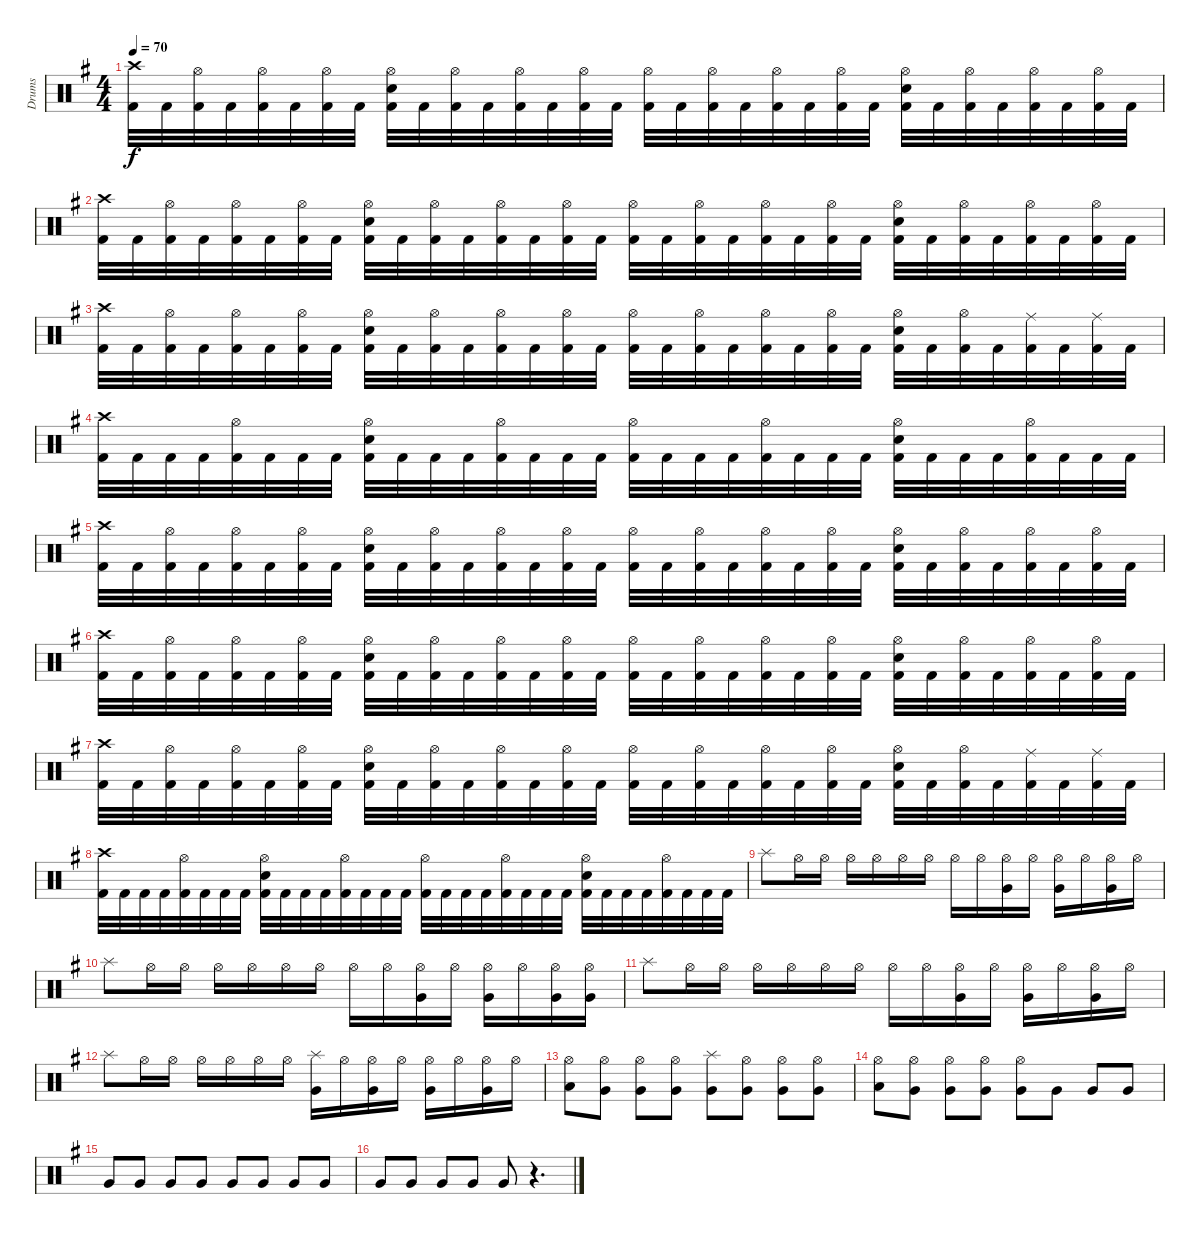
\track ("Drums" "Drums") {instrument percussion}
\staff {score}
\articulation defaults
\ts (4 4)
\tempo 70
\clef neutral
\ks g
("Crash high (hit)" "Kick (hit) 2").32{dy f} "Kick (hit) 2".32 ("Hi-Hat (open)" "Kick (hit) 2").32 "Kick (hit) 2".32 ("Hi-Hat (open)" "Kick (hit) 2").32 "Kick (hit) 2".32 ("Hi-Hat (open)" "Kick (hit) 2").32 "Kick (hit) 2".32 ("Hi-Hat (open)" "Electric Snare (hit)" "Kick (hit) 2").32 "Kick (hit) 2".32 ("Hi-Hat (open)" "Kick (hit) 2").32 "Kick (hit) 2".32 ("Hi-Hat (open)" "Kick (hit) 2").32 "Kick (hit) 2".32 ("Hi-Hat (open)" "Kick (hit) 2").32 "Kick (hit) 2".32 ("Hi-Hat (open)" "Kick (hit) 2").32 "Kick (hit) 2".32 ("Hi-Hat (open)" "Kick (hit) 2").32 "Kick (hit) 2".32 ("Hi-Hat (open)" "Kick (hit) 2").32 "Kick (hit) 2".32 ("Hi-Hat (open)" "Kick (hit) 2").32 "Kick (hit) 2".32 ("Hi-Hat (open)" "Electric Snare (hit)" "Kick (hit) 2").32 "Kick (hit) 2".32 ("Hi-Hat (open)" "Kick (hit) 2").32 "Kick (hit) 2".32 ("Hi-Hat (open)" "Kick (hit) 2").32 "Kick (hit) 2".32 ("Hi-Hat (open)" "Kick (hit) 2").32 "Kick (hit) 2".32 |
("Crash high (hit)" "Kick (hit) 2").32 "Kick (hit) 2".32 ("Hi-Hat (open)" "Kick (hit) 2").32 "Kick (hit) 2".32 ("Hi-Hat (open)" "Kick (hit) 2").32 "Kick (hit) 2".32 ("Hi-Hat (open)" "Kick (hit) 2").32 "Kick (hit) 2".32 ("Hi-Hat (open)" "Electric Snare (hit)" "Kick (hit) 2").32 "Kick (hit) 2".32 ("Hi-Hat (open)" "Kick (hit) 2").32 "Kick (hit) 2".32 ("Hi-Hat (open)" "Kick (hit) 2").32 "Kick (hit) 2".32 ("Hi-Hat (open)" "Kick (hit) 2").32 "Kick (hit) 2".32 ("Hi-Hat (open)" "Kick (hit) 2").32 "Kick (hit) 2".32 ("Hi-Hat (open)" "Kick (hit) 2").32 "Kick (hit) 2".32 ("Hi-Hat (open)" "Kick (hit) 2").32 "Kick (hit) 2".32 ("Hi-Hat (open)" "Kick (hit) 2").32 "Kick (hit) 2".32 ("Hi-Hat (open)" "Electric Snare (hit)" "Kick (hit) 2").32 "Kick (hit) 2".32 ("Hi-Hat (open)" "Kick (hit) 2").32 "Kick (hit) 2".32 ("Hi-Hat (open)" "Kick (hit) 2").32 "Kick (hit) 2".32 ("Hi-Hat (open)" "Kick (hit) 2").32 "Kick (hit) 2".32 |
("Crash high (hit)" "Kick (hit) 2").32 "Kick (hit) 2".32 ("Hi-Hat (open)" "Kick (hit) 2").32 "Kick (hit) 2".32 ("Hi-Hat (open)" "Kick (hit) 2").32 "Kick (hit) 2".32 ("Hi-Hat (open)" "Kick (hit) 2").32 "Kick (hit) 2".32 ("Hi-Hat (open)" "Electric Snare (hit)" "Kick (hit) 2").32 "Kick (hit) 2".32 ("Hi-Hat (open)" "Kick (hit) 2").32 "Kick (hit) 2".32 ("Hi-Hat (open)" "Kick (hit) 2").32 "Kick (hit) 2".32 ("Hi-Hat (open)" "Kick (hit) 2").32 "Kick (hit) 2".32 ("Hi-Hat (open)" "Kick (hit) 2").32 "Kick (hit) 2".32 ("Hi-Hat (open)" "Kick (hit) 2").32 "Kick (hit) 2".32 ("Hi-Hat (open)" "Kick (hit) 2").32 "Kick (hit) 2".32 ("Hi-Hat (open)" "Kick (hit) 2").32 "Kick (hit) 2".32 ("Hi-Hat (open)" "Electric Snare (hit)" "Kick (hit) 2").32 "Kick (hit) 2".32 ("Hi-Hat (open)" "Kick (hit) 2").32 "Kick (hit) 2".32 ("Ride (middle)" "Kick (hit) 2").32 "Kick (hit) 2".32 ("Ride (middle)" "Kick (hit) 2").32 "Kick (hit) 2".32 |
("Crash high (hit)" "Kick (hit) 2").32 "Kick (hit) 2".32 "Kick (hit) 2".32 "Kick (hit) 2".32 ("Hi-Hat (open)" "Kick (hit) 2").32 "Kick (hit) 2".32 "Kick (hit) 2".32 "Kick (hit) 2".32 ("Hi-Hat (open)" "Electric Snare (hit)" "Kick (hit) 2").32 "Kick (hit) 2".32 "Kick (hit) 2".32 "Kick (hit) 2".32 ("Hi-Hat (open)" "Kick (hit) 2").32 "Kick (hit) 2".32 "Kick (hit) 2".32 "Kick (hit) 2".32 ("Hi-Hat (open)" "Kick (hit) 2").32 "Kick (hit) 2".32 "Kick (hit) 2".32 "Kick (hit) 2".32 ("Hi-Hat (open)" "Kick (hit) 2").32 "Kick (hit) 2".32 "Kick (hit) 2".32 "Kick (hit) 2".32 ("Hi-Hat (open)" "Electric Snare (hit)" "Kick (hit) 2").32 "Kick (hit) 2".32 "Kick (hit) 2".32 "Kick (hit) 2".32 ("Hi-Hat (open)" "Kick (hit) 2").32 "Kick (hit) 2".32 "Kick (hit) 2".32 "Kick (hit) 2".32 |
("Crash high (hit)" "Kick (hit) 2").32 "Kick (hit) 2".32 ("Hi-Hat (open)" "Kick (hit) 2").32 "Kick (hit) 2".32 ("Hi-Hat (open)" "Kick (hit) 2").32 "Kick (hit) 2".32 ("Hi-Hat (open)" "Kick (hit) 2").32 "Kick (hit) 2".32 ("Hi-Hat (open)" "Electric Snare (hit)" "Kick (hit) 2").32 "Kick (hit) 2".32 ("Hi-Hat (open)" "Kick (hit) 2").32 "Kick (hit) 2".32 ("Hi-Hat (open)" "Kick (hit) 2").32 "Kick (hit) 2".32 ("Hi-Hat (open)" "Kick (hit) 2").32 "Kick (hit) 2".32 ("Hi-Hat (open)" "Kick (hit) 2").32 "Kick (hit) 2".32 ("Hi-Hat (open)" "Kick (hit) 2").32 "Kick (hit) 2".32 ("Hi-Hat (open)" "Kick (hit) 2").32 "Kick (hit) 2".32 ("Hi-Hat (open)" "Kick (hit) 2").32 "Kick (hit) 2".32 ("Hi-Hat (open)" "Electric Snare (hit)" "Kick (hit) 2").32 "Kick (hit) 2".32 ("Hi-Hat (open)" "Kick (hit) 2").32 "Kick (hit) 2".32 ("Hi-Hat (open)" "Kick (hit) 2").32 "Kick (hit) 2".32 ("Hi-Hat (open)" "Kick (hit) 2").32 "Kick (hit) 2".32 |
("Crash high (hit)" "Kick (hit) 2").32 "Kick (hit) 2".32 ("Hi-Hat (open)" "Kick (hit) 2").32 "Kick (hit) 2".32 ("Hi-Hat (open)" "Kick (hit) 2").32 "Kick (hit) 2".32 ("Hi-Hat (open)" "Kick (hit) 2").32 "Kick (hit) 2".32 ("Hi-Hat (open)" "Electric Snare (hit)" "Kick (hit) 2").32 "Kick (hit) 2".32 ("Hi-Hat (open)" "Kick (hit) 2").32 "Kick (hit) 2".32 ("Hi-Hat (open)" "Kick (hit) 2").32 "Kick (hit) 2".32 ("Hi-Hat (open)" "Kick (hit) 2").32 "Kick (hit) 2".32 ("Hi-Hat (open)" "Kick (hit) 2").32 "Kick (hit) 2".32 ("Hi-Hat (open)" "Kick (hit) 2").32 "Kick (hit) 2".32 ("Hi-Hat (open)" "Kick (hit) 2").32 "Kick (hit) 2".32 ("Hi-Hat (open)" "Kick (hit) 2").32 "Kick (hit) 2".32 ("Hi-Hat (open)" "Electric Snare (hit)" "Kick (hit) 2").32 "Kick (hit) 2".32 ("Hi-Hat (open)" "Kick (hit) 2").32 "Kick (hit) 2".32 ("Hi-Hat (open)" "Kick (hit) 2").32 "Kick (hit) 2".32 ("Hi-Hat (open)" "Kick (hit) 2").32 "Kick (hit) 2".32 |
("Crash high (hit)" "Kick (hit) 2").32 "Kick (hit) 2".32 ("Hi-Hat (open)" "Kick (hit) 2").32 "Kick (hit) 2".32 ("Hi-Hat (open)" "Kick (hit) 2").32 "Kick (hit) 2".32 ("Hi-Hat (open)" "Kick (hit) 2").32 "Kick (hit) 2".32 ("Hi-Hat (open)" "Electric Snare (hit)" "Kick (hit) 2").32 "Kick (hit) 2".32 ("Hi-Hat (open)" "Kick (hit) 2").32 "Kick (hit) 2".32 ("Hi-Hat (open)" "Kick (hit) 2").32 "Kick (hit) 2".32 ("Hi-Hat (open)" "Kick (hit) 2").32 "Kick (hit) 2".32 ("Hi-Hat (open)" "Kick (hit) 2").32 "Kick (hit) 2".32 ("Hi-Hat (open)" "Kick (hit) 2").32 "Kick (hit) 2".32 ("Hi-Hat (open)" "Kick (hit) 2").32 "Kick (hit) 2".32 ("Hi-Hat (open)" "Kick (hit) 2").32 "Kick (hit) 2".32 ("Hi-Hat (open)" "Electric Snare (hit)" "Kick (hit) 2").32 "Kick (hit) 2".32 ("Hi-Hat (open)" "Kick (hit) 2").32 "Kick (hit) 2".32 ("Ride (middle)" "Kick (hit) 2").32 "Kick (hit) 2".32 ("Ride (middle)" "Kick (hit) 2").32 "Kick (hit) 2".32 |
("Crash high (hit)" "Kick (hit) 2").32 "Kick (hit) 2".32 "Kick (hit) 2".32 "Kick (hit) 2".32 ("Hi-Hat (open)" "Kick (hit) 2").32 "Kick (hit) 2".32 "Kick (hit) 2".32 "Kick (hit) 2".32 ("Hi-Hat (open)" "Electric Snare (hit)" "Kick (hit) 2").32 "Kick (hit) 2".32 "Kick (hit) 2".32 "Kick (hit) 2".32 ("Hi-Hat (open)" "Kick (hit) 2").32 "Kick (hit) 2".32 "Kick (hit) 2".32 "Kick (hit) 2".32 ("Hi-Hat (open)" "Kick (hit) 2").32 "Kick (hit) 2".32 "Kick (hit) 2".32 "Kick (hit) 2".32 ("Hi-Hat (open)" "Kick (hit) 2").32 "Kick (hit) 2".32 "Kick (hit) 2".32 "Kick (hit) 2".32 ("Hi-Hat (open)" "Electric Snare (hit)" "Kick (hit) 2").32 "Kick (hit) 2".32 "Kick (hit) 2".32 "Kick (hit) 2".32 ("Hi-Hat (open)" "Kick (hit) 2").32 "Kick (hit) 2".32 "Kick (hit) 2".32 "Kick (hit) 2".32 |
"Splash (hit)".8 "Hi-Hat (open)".16 "Hi-Hat (open)".16 "Hi-Hat (open)".16 "Hi-Hat (open)".16 "Hi-Hat (open)".16 "Hi-Hat (open)".16 "Hi-Hat (open)".16 "Hi-Hat (open)".16 ("Hi-Hat (open)" "Very Low Tom (hit)").16 "Hi-Hat (open)".16 ("Hi-Hat (open)" "Very Low Tom (hit)").16 "Hi-Hat (open)".16 ("Hi-Hat (open)" "Very Low Tom (hit)").16 "Hi-Hat (open)".16 |
"Splash (hit)".8 "Hi-Hat (open)".16 "Hi-Hat (open)".16 "Hi-Hat (open)".16 "Hi-Hat (open)".16 "Hi-Hat (open)".16 "Hi-Hat (open)".16 "Hi-Hat (open)".16 "Hi-Hat (open)".16 ("Hi-Hat (open)" "Very Low Tom (hit)").16 "Hi-Hat (open)".16 ("Hi-Hat (open)" "Very Low Tom (hit)").16 "Hi-Hat (open)".16 ("Hi-Hat (open)" "Very Low Tom (hit)").16 ("Hi-Hat (open)" "Very Low Tom (hit)").16 |
"Splash (hit)".8 "Hi-Hat (open)".16 "Hi-Hat (open)".16 "Hi-Hat (open)".16 "Hi-Hat (open)".16 "Hi-Hat (open)".16 "Hi-Hat (open)".16 "Hi-Hat (open)".16 "Hi-Hat (open)".16 ("Hi-Hat (open)" "Very Low Tom (hit)").16 "Hi-Hat (open)".16 ("Hi-Hat (open)" "Very Low Tom (hit)").16 "Hi-Hat (open)".16 ("Hi-Hat (open)" "Very Low Tom (hit)").16 "Hi-Hat (open)".16 |
"Splash (hit)".8 "Hi-Hat (open)".16 "Hi-Hat (open)".16 "Hi-Hat (open)".16 "Hi-Hat (open)".16 "Hi-Hat (open)".16 "Hi-Hat (open)".16 ("Splash (hit)" "Very Low Tom (hit)").16 "Hi-Hat (open)".16 ("Hi-Hat (open)" "Very Low Tom (hit)").16 "Hi-Hat (open)".16 ("Hi-Hat (open)" "Very Low Tom (hit)").16 "Hi-Hat (open)".16 ("Hi-Hat (open)" "Very Low Tom (hit)").16 "Hi-Hat (open)".16 |
("Hi-Hat (open)" "Low Tom (hit)").8 ("Hi-Hat (open)" "Very Low Tom (hit)").8 ("Hi-Hat (open)" "Very Low Tom (hit)").8 ("Hi-Hat (open)" "Very Low Tom (hit)").8 ("Splash (hit)" "Very Low Tom (hit)").8 ("Hi-Hat (open)" "Very Low Tom (hit)").8 ("Hi-Hat (open)" "Very Low Tom (hit)").8 ("Hi-Hat (open)" "Very Low Tom (hit)").8 |
("Hi-Hat (open)" "Low Tom (hit)").8 ("Hi-Hat (open)" "Very Low Tom (hit)").8 ("Hi-Hat (open)" "Very Low Tom (hit)").8 ("Hi-Hat (open)" "Very Low Tom (hit)").8 ("Hi-Hat (open)" "Very Low Tom (hit)").8 "Very Low Tom (hit)".8 "Very Low Tom (hit)".8 "Very Low Tom (hit)".8 |
"Very Low Tom (hit)".8 "Very Low Tom (hit)".8 "Very Low Tom (hit)".8 "Very Low Tom (hit)".8 "Very Low Tom (hit)".8 "Very Low Tom (hit)".8 "Very Low Tom (hit)".8 "Very Low Tom (hit)".8 |
"Very Low Tom (hit)".8 "Very Low Tom (hit)".8 "Very Low Tom (hit)".8 "Very Low Tom (hit)".8 "Very Low Tom (hit)".8 r.4{d}
